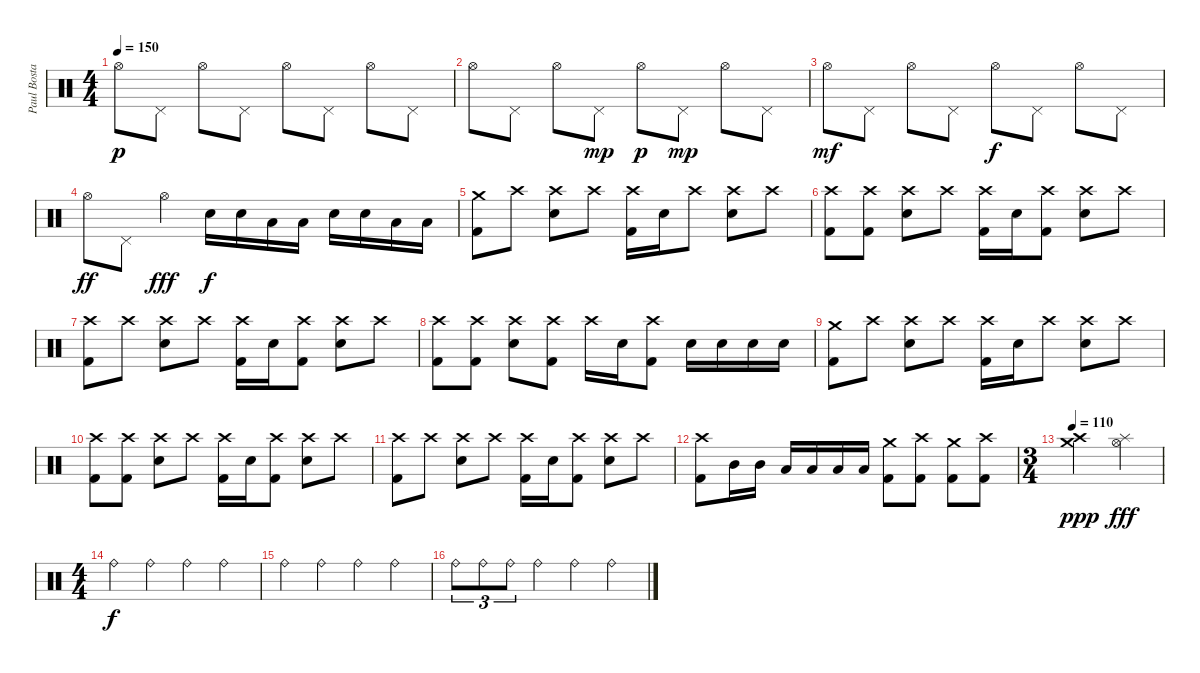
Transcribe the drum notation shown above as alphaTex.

\track ("Paul Bostaph" "Paul Bosta") {instrument percussion}
\staff {score}
\articulation defaults
\ts (4 4)
\tempo 150
\clef neutral
\ks c "Hi-Hat (open)".8{dy p} "Pedal Hi-Hat (hit)".8 "Hi-Hat (open)".8 "Pedal Hi-Hat (hit)".8 "Hi-Hat (open)".8 "Pedal Hi-Hat (hit)".8 "Hi-Hat (open)".8 "Pedal Hi-Hat (hit)".8
|
"Hi-Hat (open)".8 "Pedal Hi-Hat (hit)".8 "Hi-Hat (open)".8 "Pedal Hi-Hat (hit)".8{dy mp} "Hi-Hat (open)".8{dy p} "Pedal Hi-Hat (hit)".8{dy mp} "Hi-Hat (open)".8 "Pedal Hi-Hat (hit)".8 |
"Hi-Hat (open)".8{dy mf} "Pedal Hi-Hat (hit)".8 "Hi-Hat (open)".8 "Pedal Hi-Hat (hit)".8 "Hi-Hat (open)".8{dy f} "Pedal Hi-Hat (hit)".8 "Hi-Hat (open)".8 "Pedal Hi-Hat (hit)".8 |
"Hi-Hat (open)".8{dy ff} "Pedal Hi-Hat (hit)".8 "Hi-Hat (open)".4{dy fff} "Electric Snare (hit)".16{dy f} "Electric Snare (hit)".16 "Low Tom (hit)".16 "Low Tom (hit)".16 "Electric Snare (hit)".16 "Electric Snare (hit)".16 "Low Tom (hit)".16 "Low Tom (hit)".16 |
("Crash medium (hit)" "Kick (hit) 2").8 "Crash high (hit)".8 ("Crash high (hit)" "Electric Snare (hit)").8 "Crash high (hit)".8 ("Crash high (hit)" "Kick (hit) 2").16 "Electric Snare (hit)".16 "Crash high (hit)".8 ("Crash high (hit)" "Electric Snare (hit)").8 "Crash high (hit)".8 |
("Crash high (hit)" "Kick (hit) 2").8 ("Crash high (hit)" "Kick (hit) 2").8 ("Crash high (hit)" "Electric Snare (hit)").8 "Crash high (hit)".8 ("Crash high (hit)" "Kick (hit) 2").16 "Electric Snare (hit)".16 ("Crash high (hit)" "Kick (hit) 2").8 ("Crash high (hit)" "Electric Snare (hit)").8 "Crash high (hit)".8 |
("Crash high (hit)" "Kick (hit) 2").8 "Crash high (hit)".8 ("Crash high (hit)" "Electric Snare (hit)").8 "Crash high (hit)".8 ("Crash high (hit)" "Kick (hit) 2").16 "Electric Snare (hit)".16 ("Crash high (hit)" "Kick (hit) 2").8 ("Crash high (hit)" "Electric Snare (hit)").8 "Crash high (hit)".8 |
("Crash high (hit)" "Kick (hit) 2").8 ("Crash high (hit)" "Kick (hit) 2").8 ("Crash high (hit)" "Electric Snare (hit)").8 ("Crash high (hit)" "Kick (hit) 2").8 "Crash high (hit)".16 "Electric Snare (hit)".16 ("Crash high (hit)" "Kick (hit) 2").8 "Electric Snare (hit)".16 "Electric Snare (hit)".16 "Electric Snare (hit)".16 "Electric Snare (hit)".16 |
("Crash medium (hit)" "Kick (hit) 2").8 "Crash high (hit)".8 ("Crash high (hit)" "Electric Snare (hit)").8 "Crash high (hit)".8 ("Crash high (hit)" "Kick (hit) 2").16 "Electric Snare (hit)".16 "Crash high (hit)".8 ("Crash high (hit)" "Electric Snare (hit)").8 "Crash high (hit)".8 |
("Crash high (hit)" "Kick (hit) 2").8 ("Crash high (hit)" "Kick (hit) 2").8 ("Crash high (hit)" "Electric Snare (hit)").8 "Crash high (hit)".8 ("Crash high (hit)" "Kick (hit) 2").16 "Electric Snare (hit)".16 ("Crash high (hit)" "Kick (hit) 2").8 ("Crash high (hit)" "Electric Snare (hit)").8 "Crash high (hit)".8 |
("Crash high (hit)" "Kick (hit) 2").8 "Crash high (hit)".8 ("Crash high (hit)" "Electric Snare (hit)").8 "Crash high (hit)".8 ("Crash high (hit)" "Kick (hit) 2").16 "Electric Snare (hit)".16 ("Crash high (hit)" "Kick (hit) 2").8 ("Crash high (hit)" "Electric Snare (hit)").8 "Crash high (hit)".8 |
("Crash high (hit)" "Kick (hit) 2").8 "Mid Tom (hit)".16 "Mid Tom (hit)".16 "Low Tom (hit)".16 "Low Tom (hit)".16 "Low Tom (hit)".16 "Low Tom (hit)".16 ("Crash medium (hit)" "Kick (hit) 2").8 ("Crash high (hit)" "Kick (hit) 2").8 ("Crash medium (hit)" "Kick (hit) 2").8 ("Crash high (hit)" "Kick (hit) 2").8 |
\ts (3 4)
\tempo 110
("Crash high (hit)" "Crash medium (hit)").2{dy ppp} ("Splash (hit)" "Hi-Hat (open)").4{dy fff} |
\ts (4 4)
"Ride (bell)".4{dy f} "Ride (bell)".4 "Ride (bell)".4 "Ride (bell)".4 |
"Ride (bell)".4 "Ride (bell)".4 "Ride (bell)".4 "Ride (bell)".4 |
"Ride (bell)".8{tu (3 2)} "Ride (bell)".8{tu (3 2)} "Ride (bell)".8{tu (3 2)} "Ride (bell)".4 "Ride (bell)".4 "Ride (bell)".4
